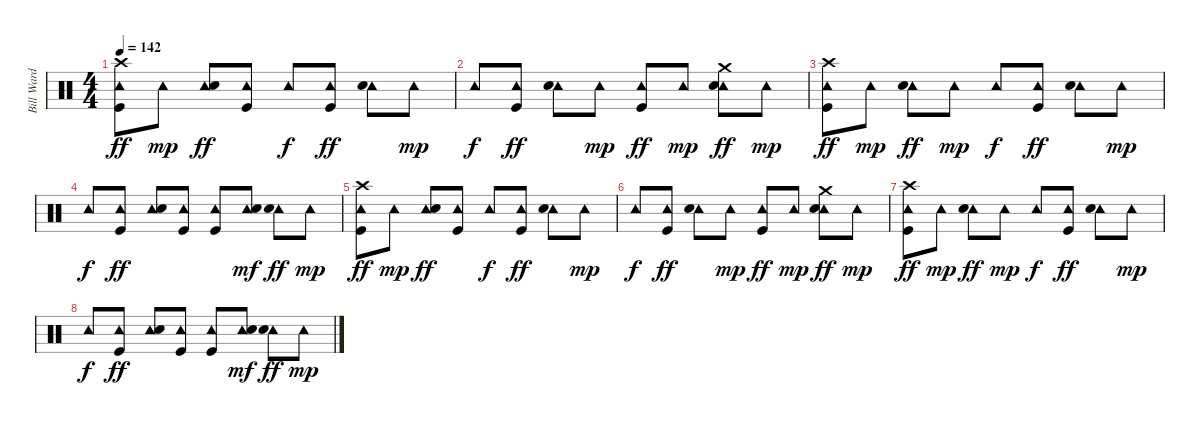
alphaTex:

\track ("Bill Ward" "Bill Ward") {instrument percussion}
\staff {score}
\articulation defaults
\ts (4 4)
\tempo 142
\clef neutral
\ks c
("Crash high (hit)" "Tambourine (hit)" "Kick (hit)").8{dy ff} "Tambourine (hit)".8{dy mp} ("Tambourine (hit)" "Snare (hit) 2").8{dy ff} ("Tambourine (hit)" "Kick (hit)").8 "Tambourine (hit)".8{dy f} ("Tambourine (hit)" "Kick (hit)").8{dy ff} ("Tambourine (hit)" "Snare (hit) 2").8 "Tambourine (hit)".8{dy mp} |
"Tambourine (hit)".8{dy f} ("Tambourine (hit)" "Kick (hit)").8{dy ff} ("Tambourine (hit)" "Snare (hit) 2").8 "Tambourine (hit)".8{dy mp} ("Tambourine (hit)" "Kick (hit)").8{dy ff} "Tambourine (hit)".8{dy mp} ("Crash medium (hit)" "Tambourine (hit)" "Snare (hit) 2").8{dy ff} "Tambourine (hit)".8{dy mp} |
("Crash high (hit)" "Tambourine (hit)" "Kick (hit)").8{dy ff} "Tambourine (hit)".8{dy mp} ("Tambourine (hit)" "Snare (hit) 2").8{dy ff} "Tambourine (hit)".8{dy mp} "Tambourine (hit)".8{dy f} ("Tambourine (hit)" "Kick (hit)").8{dy ff} ("Tambourine (hit)" "Snare (hit) 2").8 "Tambourine (hit)".8{dy mp} |
"Tambourine (hit)".8{dy f} ("Tambourine (hit)" "Kick (hit)").8{dy ff} ("Tambourine (hit)" "Snare (hit) 2").8 ("Tambourine (hit)" "Kick (hit)").8 ("Tambourine (hit)" "Kick (hit)").8 ("Tambourine (hit)" "Snare (hit) 2").8{dy mf} ("Tambourine (hit)" "Snare (hit) 2").8{dy ff} "Tambourine (hit)".8{dy mp} |
("Crash high (hit)" "Tambourine (hit)" "Kick (hit)").8{dy ff} "Tambourine (hit)".8{dy mp} ("Tambourine (hit)" "Snare (hit) 2").8{dy ff} ("Tambourine (hit)" "Kick (hit)").8 "Tambourine (hit)".8{dy f} ("Tambourine (hit)" "Kick (hit)").8{dy ff} ("Tambourine (hit)" "Snare (hit) 2").8 "Tambourine (hit)".8{dy mp} |
"Tambourine (hit)".8{dy f} ("Tambourine (hit)" "Kick (hit)").8{dy ff} ("Tambourine (hit)" "Snare (hit) 2").8 "Tambourine (hit)".8{dy mp} ("Tambourine (hit)" "Kick (hit)").8{dy ff} "Tambourine (hit)".8{dy mp} ("Crash medium (hit)" "Tambourine (hit)" "Snare (hit) 2").8{dy ff} "Tambourine (hit)".8{dy mp} |
("Crash high (hit)" "Tambourine (hit)" "Kick (hit)").8{dy ff} "Tambourine (hit)".8{dy mp} ("Tambourine (hit)" "Snare (hit) 2").8{dy ff} "Tambourine (hit)".8{dy mp} "Tambourine (hit)".8{dy f} ("Tambourine (hit)" "Kick (hit)").8{dy ff} ("Tambourine (hit)" "Snare (hit) 2").8 "Tambourine (hit)".8{dy mp} |
"Tambourine (hit)".8{dy f} ("Tambourine (hit)" "Kick (hit)").8{dy ff} ("Tambourine (hit)" "Snare (hit) 2").8 ("Tambourine (hit)" "Kick (hit)").8 ("Tambourine (hit)" "Kick (hit)").8 ("Tambourine (hit)" "Snare (hit) 2").8{dy mf} ("Tambourine (hit)" "Snare (hit) 2").8{dy ff} "Tambourine (hit)".8{dy mp}
